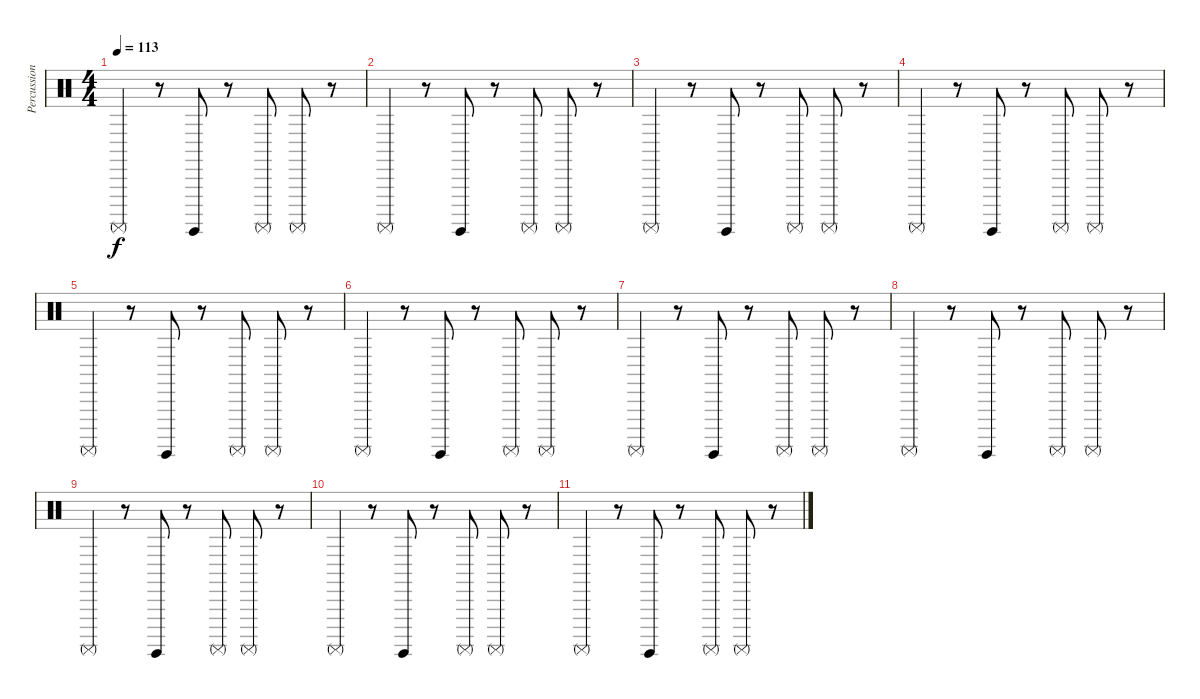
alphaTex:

\track ("Percussion" "Percussion") {instrument percussion}
\staff {score}
\articulation defaults
\ts (4 4)
\tempo 113
\clef neutral
\ks c "Surdo (mute)".4{dy f}
r.8 "Surdo (hit)".8 r.8 "Surdo (mute)".8 "Surdo (mute)".8 r.8 |
"Surdo (mute)".4{volume 16} r.8 "Surdo (hit)".8 r.8 "Surdo (mute)".8 "Surdo (mute)".8 r.8 |
"Surdo (mute)".4 r.8 "Surdo (hit)".8 r.8 "Surdo (mute)".8 "Surdo (mute)".8 r.8 |
"Surdo (mute)".4 r.8 "Surdo (hit)".8 r.8 "Surdo (mute)".8 "Surdo (mute)".8 r.8 |
"Surdo (mute)".4 r.8 "Surdo (hit)".8 r.8 "Surdo (mute)".8 "Surdo (mute)".8 r.8 |
"Surdo (mute)".4{volume 0} r.8 "Surdo (hit)".8 r.8 "Surdo (mute)".8 "Surdo (mute)".8 r.8 |
"Surdo (mute)".4 r.8 "Surdo (hit)".8 r.8 "Surdo (mute)".8 "Surdo (mute)".8 r.8 |
"Surdo (mute)".4 r.8 "Surdo (hit)".8 r.8 "Surdo (mute)".8 "Surdo (mute)".8 r.8 |
"Surdo (mute)".4 r.8 "Surdo (hit)".8 r.8 "Surdo (mute)".8 "Surdo (mute)".8 r.8 |
"Surdo (mute)".4 r.8 "Surdo (hit)".8 r.8 "Surdo (mute)".8 "Surdo (mute)".8 r.8 |
"Surdo (mute)".4 r.8 "Surdo (hit)".8 r.8 "Surdo (mute)".8 "Surdo (mute)".8 r.8
